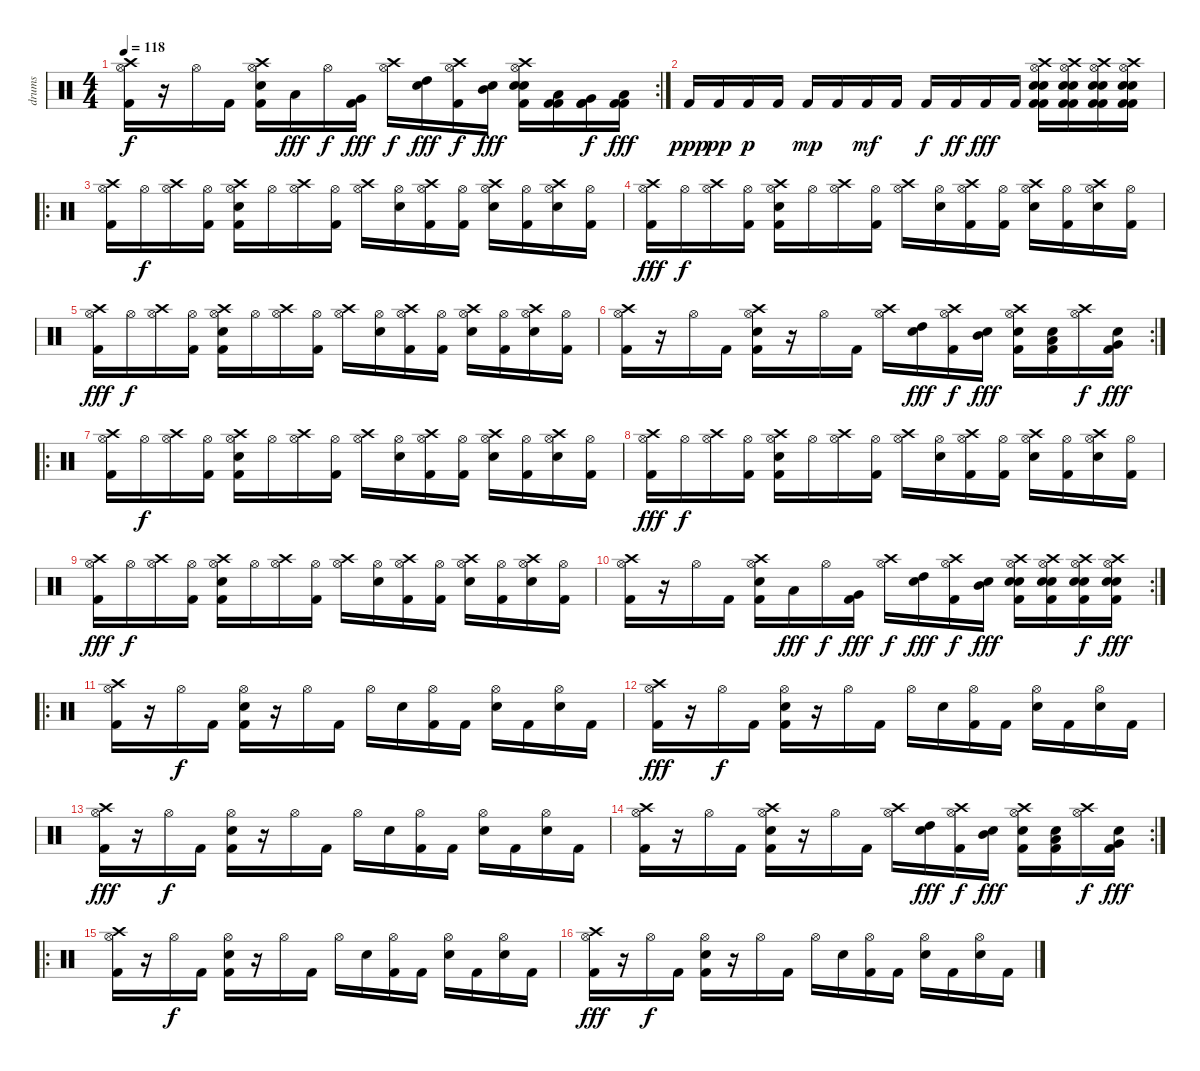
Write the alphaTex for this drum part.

\track ("drums" "drums") {instrument percussion}
\staff {score}
\articulation defaults
\rc 2
\ts (4 4)
\tempo 118
\clef neutral
\ks c
("Hi-Hat (open)" "Crash high (hit)" "Kick (hit) 2").16{dy f} r.16 "Hi-Hat (open)".16 "Kick (hit) 2".16 ("Hi-Hat (open)" "Crash high (hit)" "Electric Snare (hit)" "Kick (hit) 2").16 "Low Tom (hit)".16{dy fff} "Hi-Hat (open)".16{dy f} ("Very Low Tom (hit)" "Kick (hit) 2").16{dy fff} ("Hi-Hat (open)" "Crash high (hit)").16{dy f} ("High Tom (hit)" "Electric Snare (hit)").16{dy fff} ("Hi-Hat (open)" "Crash high (hit)" "Kick (hit) 2").16{dy f} ("Mid Tom (hit)" "Electric Snare (hit)").16{dy fff} ("Hi-Hat (open)" "Crash high (hit)" "Electric Snare (hit)" "Electric Snare (hit)" "Kick (hit) 2").16 ("Kick (hit) 2" "Low Tom (hit)" "Kick (hit) 2").16 ("Kick (hit) 2" "Very Low Tom (hit)" "Kick (hit) 2").16{dy f} ("Kick (hit) 2" "Low Floor Tom (hit)" "Kick (hit) 2").16{dy fff} |
"Kick (hit) 2".16{dy ppp} "Kick (hit) 2".16{dy pp} "Kick (hit) 2".16{dy p} "Kick (hit) 2".16 "Kick (hit) 2".16{dy mp} "Kick (hit) 2".16 "Kick (hit) 2".16{dy mf} "Kick (hit) 2".16 "Kick (hit) 2".16{dy f} "Kick (hit) 2".16{dy ff} "Kick (hit) 2".16{dy fff} "Kick (hit) 2".16 ("Hi-Hat (open)" "Crash high (hit)" "Snare (hit) 2" "Kick (hit) 2" "Electric Snare (hit)" "Kick (hit) 2").16 ("Hi-Hat (open)" "Crash high (hit)" "Snare (hit) 2" "Kick (hit) 2" "Electric Snare (hit)" "Kick (hit) 2").16 ("Hi-Hat (open)" "Crash high (hit)" "Snare (hit) 2" "Kick (hit) 2" "Electric Snare (hit)" "Kick (hit) 2").16 ("Hi-Hat (open)" "Crash high (hit)" "Snare (hit) 2" "Kick (hit) 2" "Electric Snare (hit)" "Kick (hit) 2").16 |
\ro
("Hi-Hat (open)" "Crash high (hit)" "Kick (hit) 2").16 "Hi-Hat (open)".16{dy f} ("Hi-Hat (open)" "Crash high (hit)").16 ("Hi-Hat (open)" "Kick (hit) 2").16 ("Hi-Hat (open)" "Crash high (hit)" "Electric Snare (hit)" "Kick (hit) 2").16 "Hi-Hat (open)".16 ("Hi-Hat (open)" "Crash high (hit)").16 ("Hi-Hat (open)" "Kick (hit) 2").16 ("Hi-Hat (open)" "Crash high (hit)").16 ("Hi-Hat (open)" "Electric Snare (hit)").16 ("Hi-Hat (open)" "Crash high (hit)" "Kick (hit) 2").16 ("Hi-Hat (open)" "Kick (hit) 2").16 ("Hi-Hat (open)" "Crash high (hit)" "Electric Snare (hit)").16 ("Hi-Hat (open)" "Kick (hit) 2").16 ("Hi-Hat (open)" "Crash high (hit)" "Electric Snare (hit)").16 ("Hi-Hat (open)" "Kick (hit) 2").16 |
("Hi-Hat (open)" "Crash high (hit)" "Kick (hit) 2").16{dy fff} "Hi-Hat (open)".16{dy f} ("Hi-Hat (open)" "Crash high (hit)").16 ("Hi-Hat (open)" "Kick (hit) 2").16 ("Hi-Hat (open)" "Crash high (hit)" "Electric Snare (hit)" "Kick (hit) 2").16 "Hi-Hat (open)".16 ("Hi-Hat (open)" "Crash high (hit)").16 ("Hi-Hat (open)" "Kick (hit) 2").16 ("Hi-Hat (open)" "Crash high (hit)").16 ("Hi-Hat (open)" "Electric Snare (hit)").16 ("Hi-Hat (open)" "Crash high (hit)" "Kick (hit) 2").16 ("Hi-Hat (open)" "Kick (hit) 2").16 ("Hi-Hat (open)" "Crash high (hit)" "Electric Snare (hit)").16 ("Hi-Hat (open)" "Kick (hit) 2").16 ("Hi-Hat (open)" "Crash high (hit)" "Electric Snare (hit)").16 ("Hi-Hat (open)" "Kick (hit) 2").16 |
("Hi-Hat (open)" "Crash high (hit)" "Kick (hit) 2").16{dy fff} "Hi-Hat (open)".16{dy f} ("Hi-Hat (open)" "Crash high (hit)").16 ("Hi-Hat (open)" "Kick (hit) 2").16 ("Hi-Hat (open)" "Crash high (hit)" "Electric Snare (hit)" "Kick (hit) 2").16 "Hi-Hat (open)".16 ("Hi-Hat (open)" "Crash high (hit)").16 ("Hi-Hat (open)" "Kick (hit) 2").16 ("Hi-Hat (open)" "Crash high (hit)").16 ("Hi-Hat (open)" "Electric Snare (hit)").16 ("Hi-Hat (open)" "Crash high (hit)" "Kick (hit) 2").16 ("Hi-Hat (open)" "Kick (hit) 2").16 ("Hi-Hat (open)" "Crash high (hit)" "Electric Snare (hit)").16 ("Hi-Hat (open)" "Kick (hit) 2").16 ("Hi-Hat (open)" "Crash high (hit)" "Electric Snare (hit)").16 ("Hi-Hat (open)" "Kick (hit) 2").16 |
\rc 2
("Hi-Hat (open)" "Crash high (hit)" "Kick (hit) 2").16 r.16 "Hi-Hat (open)".16 "Kick (hit) 2".16 ("Hi-Hat (open)" "Crash high (hit)" "Electric Snare (hit)" "Kick (hit) 2").16 r.16 "Hi-Hat (open)".16 "Kick (hit) 2".16 ("Hi-Hat (open)" "Crash high (hit)").16 ("High Tom (hit)" "Electric Snare (hit)").16{dy fff} ("Hi-Hat (open)" "Crash high (hit)" "Kick (hit) 2").16{dy f} ("Mid Tom (hit)" "Electric Snare (hit)").16{dy fff} ("Hi-Hat (open)" "Crash high (hit)" "Electric Snare (hit)" "Kick (hit) 2").16 ("Low Tom (hit)" "Electric Snare (hit)" "Kick (hit) 2").16 ("Hi-Hat (open)" "Crash high (hit)").16{dy f} ("Very Low Tom (hit)" "Electric Snare (hit)" "Kick (hit) 2").16{dy fff} |
\ro
("Hi-Hat (open)" "Crash high (hit)" "Kick (hit) 2").16 "Hi-Hat (open)".16{dy f} ("Hi-Hat (open)" "Crash high (hit)").16 ("Hi-Hat (open)" "Kick (hit) 2").16 ("Hi-Hat (open)" "Crash high (hit)" "Electric Snare (hit)" "Kick (hit) 2").16 "Hi-Hat (open)".16 ("Hi-Hat (open)" "Crash high (hit)").16 ("Hi-Hat (open)" "Kick (hit) 2").16 ("Hi-Hat (open)" "Crash high (hit)").16 ("Hi-Hat (open)" "Electric Snare (hit)").16 ("Hi-Hat (open)" "Crash high (hit)" "Kick (hit) 2").16 ("Hi-Hat (open)" "Kick (hit) 2").16 ("Hi-Hat (open)" "Crash high (hit)" "Electric Snare (hit)").16 ("Hi-Hat (open)" "Kick (hit) 2").16 ("Hi-Hat (open)" "Crash high (hit)" "Electric Snare (hit)").16 ("Hi-Hat (open)" "Kick (hit) 2").16 |
("Hi-Hat (open)" "Crash high (hit)" "Kick (hit) 2").16{dy fff} "Hi-Hat (open)".16{dy f} ("Hi-Hat (open)" "Crash high (hit)").16 ("Hi-Hat (open)" "Kick (hit) 2").16 ("Hi-Hat (open)" "Crash high (hit)" "Electric Snare (hit)" "Kick (hit) 2").16 "Hi-Hat (open)".16 ("Hi-Hat (open)" "Crash high (hit)").16 ("Hi-Hat (open)" "Kick (hit) 2").16 ("Hi-Hat (open)" "Crash high (hit)").16 ("Hi-Hat (open)" "Electric Snare (hit)").16 ("Hi-Hat (open)" "Crash high (hit)" "Kick (hit) 2").16 ("Hi-Hat (open)" "Kick (hit) 2").16 ("Hi-Hat (open)" "Crash high (hit)" "Electric Snare (hit)").16 ("Hi-Hat (open)" "Kick (hit) 2").16 ("Hi-Hat (open)" "Crash high (hit)" "Electric Snare (hit)").16 ("Hi-Hat (open)" "Kick (hit) 2").16 |
("Hi-Hat (open)" "Crash high (hit)" "Kick (hit) 2").16{dy fff} "Hi-Hat (open)".16{dy f} ("Hi-Hat (open)" "Crash high (hit)").16 ("Hi-Hat (open)" "Kick (hit) 2").16 ("Hi-Hat (open)" "Crash high (hit)" "Electric Snare (hit)" "Kick (hit) 2").16 "Hi-Hat (open)".16 ("Hi-Hat (open)" "Crash high (hit)").16 ("Hi-Hat (open)" "Kick (hit) 2").16 ("Hi-Hat (open)" "Crash high (hit)").16 ("Hi-Hat (open)" "Electric Snare (hit)").16 ("Hi-Hat (open)" "Crash high (hit)" "Kick (hit) 2").16 ("Hi-Hat (open)" "Kick (hit) 2").16 ("Hi-Hat (open)" "Crash high (hit)" "Electric Snare (hit)").16 ("Hi-Hat (open)" "Kick (hit) 2").16 ("Hi-Hat (open)" "Crash high (hit)" "Electric Snare (hit)").16 ("Hi-Hat (open)" "Kick (hit) 2").16 |
\rc 2
("Hi-Hat (open)" "Crash high (hit)" "Kick (hit) 2").16 r.16 "Hi-Hat (open)".16 "Kick (hit) 2".16 ("Hi-Hat (open)" "Crash high (hit)" "Electric Snare (hit)" "Kick (hit) 2").16 "Low Tom (hit)".16{dy fff} "Hi-Hat (open)".16{dy f} ("Very Low Tom (hit)" "Kick (hit) 2").16{dy fff} ("Hi-Hat (open)" "Crash high (hit)").16{dy f} ("High Tom (hit)" "Electric Snare (hit)").16{dy fff} ("Hi-Hat (open)" "Crash high (hit)" "Kick (hit) 2").16{dy f} ("Mid Tom (hit)" "Electric Snare (hit)").16{dy fff} ("Hi-Hat (open)" "Crash high (hit)" "Electric Snare (hit)" "Electric Snare (hit)" "Kick (hit) 2").16 ("Hi-Hat (open)" "Crash high (hit)" "Electric Snare (hit)" "Electric Snare (hit)" "Kick (hit) 2").16 ("Hi-Hat (open)" "Crash high (hit)" "Electric Snare (hit)" "Electric Snare (hit)" "Kick (hit) 2").16{dy f} ("Hi-Hat (open)" "Crash high (hit)" "Electric Snare (hit)" "Electric Snare (hit)" "Kick (hit) 2").16{dy fff} |
\ro
("Hi-Hat (open)" "Crash high (hit)" "Kick (hit) 2").16 r.16 "Hi-Hat (open)".16{dy f} "Kick (hit) 2".16 ("Hi-Hat (open)" "Electric Snare (hit)" "Kick (hit) 2").16 r.16 "Hi-Hat (open)".16 "Kick (hit) 2".16 "Hi-Hat (open)".16 "Electric Snare (hit)".16 ("Hi-Hat (open)" "Kick (hit) 2").16 "Kick (hit) 2".16 ("Hi-Hat (open)" "Electric Snare (hit)").16 "Kick (hit) 2".16 ("Hi-Hat (open)" "Electric Snare (hit)").16 "Kick (hit) 2".16 |
("Hi-Hat (open)" "Crash high (hit)" "Kick (hit) 2").16{dy fff} r.16 "Hi-Hat (open)".16{dy f} "Kick (hit) 2".16 ("Hi-Hat (open)" "Electric Snare (hit)" "Kick (hit) 2").16 r.16 "Hi-Hat (open)".16 "Kick (hit) 2".16 "Hi-Hat (open)".16 "Electric Snare (hit)".16 ("Hi-Hat (open)" "Kick (hit) 2").16 "Kick (hit) 2".16 ("Hi-Hat (open)" "Electric Snare (hit)").16 "Kick (hit) 2".16 ("Hi-Hat (open)" "Electric Snare (hit)").16 "Kick (hit) 2".16 |
("Hi-Hat (open)" "Crash high (hit)" "Kick (hit) 2").16{dy fff} r.16 "Hi-Hat (open)".16{dy f} "Kick (hit) 2".16 ("Hi-Hat (open)" "Electric Snare (hit)" "Kick (hit) 2").16 r.16 "Hi-Hat (open)".16 "Kick (hit) 2".16 "Hi-Hat (open)".16 "Electric Snare (hit)".16 ("Hi-Hat (open)" "Kick (hit) 2").16 "Kick (hit) 2".16 ("Hi-Hat (open)" "Electric Snare (hit)").16 "Kick (hit) 2".16 ("Hi-Hat (open)" "Electric Snare (hit)").16 "Kick (hit) 2".16 |
\rc 2
("Hi-Hat (open)" "Crash high (hit)" "Kick (hit) 2").16 r.16 "Hi-Hat (open)".16 "Kick (hit) 2".16 ("Hi-Hat (open)" "Crash high (hit)" "Electric Snare (hit)" "Kick (hit) 2").16 r.16 "Hi-Hat (open)".16 "Kick (hit) 2".16 ("Hi-Hat (open)" "Crash high (hit)").16 ("High Tom (hit)" "Electric Snare (hit)").16{dy fff} ("Hi-Hat (open)" "Crash high (hit)" "Kick (hit) 2").16{dy f} ("Mid Tom (hit)" "Electric Snare (hit)").16{dy fff} ("Hi-Hat (open)" "Crash high (hit)" "Electric Snare (hit)" "Kick (hit) 2").16 ("Low Tom (hit)" "Electric Snare (hit)" "Kick (hit) 2").16 ("Hi-Hat (open)" "Crash high (hit)").16{dy f} ("Very Low Tom (hit)" "Electric Snare (hit)" "Kick (hit) 2").16{dy fff} |
\ro
("Hi-Hat (open)" "Crash high (hit)" "Kick (hit) 2").16 r.16 "Hi-Hat (open)".16{dy f} "Kick (hit) 2".16 ("Hi-Hat (open)" "Electric Snare (hit)" "Kick (hit) 2").16 r.16 "Hi-Hat (open)".16 "Kick (hit) 2".16 "Hi-Hat (open)".16 "Electric Snare (hit)".16 ("Hi-Hat (open)" "Kick (hit) 2").16 "Kick (hit) 2".16 ("Hi-Hat (open)" "Electric Snare (hit)").16 "Kick (hit) 2".16 ("Hi-Hat (open)" "Electric Snare (hit)").16 "Kick (hit) 2".16 |
("Hi-Hat (open)" "Crash high (hit)" "Kick (hit) 2").16{dy fff} r.16 "Hi-Hat (open)".16{dy f} "Kick (hit) 2".16 ("Hi-Hat (open)" "Electric Snare (hit)" "Kick (hit) 2").16 r.16 "Hi-Hat (open)".16 "Kick (hit) 2".16 "Hi-Hat (open)".16 "Electric Snare (hit)".16 ("Hi-Hat (open)" "Kick (hit) 2").16 "Kick (hit) 2".16 ("Hi-Hat (open)" "Electric Snare (hit)").16 "Kick (hit) 2".16 ("Hi-Hat (open)" "Electric Snare (hit)").16 "Kick (hit) 2".16
